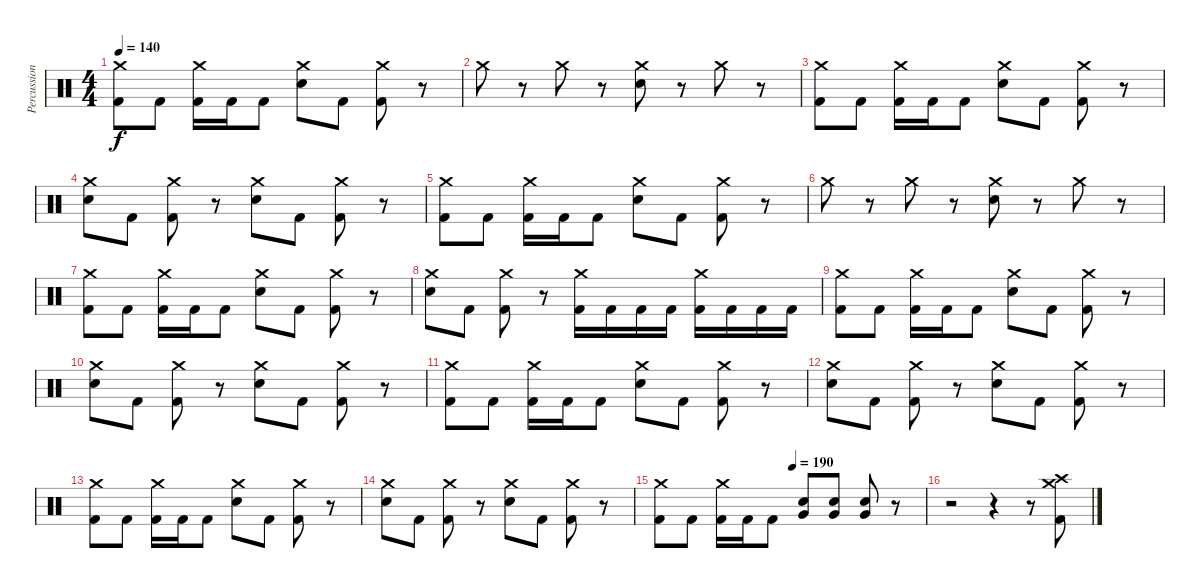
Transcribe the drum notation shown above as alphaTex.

\track ("Percussion" "Percussion") {instrument percussion}
\staff {score}
\articulation defaults
\ts (4 4)
\tempo 140
\clef neutral
\ks c
("Kick (hit) 2" "Crash medium (hit)").8{dy f} "Kick (hit) 2".8 ("Kick (hit) 2" "Crash medium (hit)").16 "Kick (hit) 2".16 "Kick (hit) 2".8 ("Electric Snare (hit)" "Crash medium (hit)").8 "Kick (hit) 2".8 ("Kick (hit) 2" "Crash medium (hit)").8 r.8 |
"Crash medium (hit)".8 r.8 "Crash medium (hit)".8 r.8 ("Electric Snare (hit)" "Crash medium (hit)").8 r.8 "Crash medium (hit)".8 r.8 |
("Kick (hit) 2" "Crash medium (hit)").8 "Kick (hit) 2".8 ("Kick (hit) 2" "Crash medium (hit)").16 "Kick (hit) 2".16 "Kick (hit) 2".8 ("Electric Snare (hit)" "Crash medium (hit)").8 "Kick (hit) 2".8 ("Kick (hit) 2" "Crash medium (hit)").8 r.8 |
("Electric Snare (hit)" "Crash medium (hit)").8 "Kick (hit) 2".8 ("Kick (hit) 2" "Crash medium (hit)").8 r.8 ("Electric Snare (hit)" "Crash medium (hit)").8 "Kick (hit) 2".8 ("Kick (hit) 2" "Crash medium (hit)").8 r.8 |
("Kick (hit) 2" "Crash medium (hit)").8 "Kick (hit) 2".8 ("Kick (hit) 2" "Crash medium (hit)").16 "Kick (hit) 2".16 "Kick (hit) 2".8 ("Electric Snare (hit)" "Crash medium (hit)").8 "Kick (hit) 2".8 ("Kick (hit) 2" "Crash medium (hit)").8 r.8 |
"Crash medium (hit)".8 r.8 "Crash medium (hit)".8 r.8 ("Electric Snare (hit)" "Crash medium (hit)").8 r.8 "Crash medium (hit)".8 r.8 |
("Kick (hit) 2" "Crash medium (hit)").8 "Kick (hit) 2".8 ("Kick (hit) 2" "Crash medium (hit)").16 "Kick (hit) 2".16 "Kick (hit) 2".8 ("Electric Snare (hit)" "Crash medium (hit)").8 "Kick (hit) 2".8 ("Kick (hit) 2" "Crash medium (hit)").8 r.8 |
("Electric Snare (hit)" "Crash medium (hit)").8 "Kick (hit) 2".8 ("Kick (hit) 2" "Crash medium (hit)").8 r.8 ("Kick (hit) 2" "Crash medium (hit)").16 "Kick (hit) 2".16 "Kick (hit) 2".16 "Kick (hit) 2".16 ("Kick (hit) 2" "Crash medium (hit)").16 "Kick (hit) 2".16 "Kick (hit) 2".16 "Kick (hit) 2".16 |
("Kick (hit) 2" "Crash medium (hit)").8 "Kick (hit) 2".8 ("Kick (hit) 2" "Crash medium (hit)").16 "Kick (hit) 2".16 "Kick (hit) 2".8 ("Electric Snare (hit)" "Crash medium (hit)").8 "Kick (hit) 2".8 ("Kick (hit) 2" "Crash medium (hit)").8 r.8 |
("Electric Snare (hit)" "Crash medium (hit)").8 "Kick (hit) 2".8 ("Kick (hit) 2" "Crash medium (hit)").8 r.8 ("Electric Snare (hit)" "Crash medium (hit)").8 "Kick (hit) 2".8 ("Kick (hit) 2" "Crash medium (hit)").8 r.8 |
("Kick (hit) 2" "Crash medium (hit)").8 "Kick (hit) 2".8 ("Kick (hit) 2" "Crash medium (hit)").16 "Kick (hit) 2".16 "Kick (hit) 2".8 ("Electric Snare (hit)" "Crash medium (hit)").8 "Kick (hit) 2".8 ("Kick (hit) 2" "Crash medium (hit)").8 r.8 |
("Electric Snare (hit)" "Crash medium (hit)").8 "Kick (hit) 2".8 ("Kick (hit) 2" "Crash medium (hit)").8 r.8 ("Electric Snare (hit)" "Crash medium (hit)").8 "Kick (hit) 2".8 ("Kick (hit) 2" "Crash medium (hit)").8 r.8 |
("Kick (hit) 2" "Crash medium (hit)").8 "Kick (hit) 2".8 ("Kick (hit) 2" "Crash medium (hit)").16 "Kick (hit) 2".16 "Kick (hit) 2".8 ("Electric Snare (hit)" "Crash medium (hit)").8 "Kick (hit) 2".8 ("Kick (hit) 2" "Crash medium (hit)").8 r.8 |
("Electric Snare (hit)" "Crash medium (hit)").8 "Kick (hit) 2".8 ("Kick (hit) 2" "Crash medium (hit)").8 r.8 ("Electric Snare (hit)" "Crash medium (hit)").8 "Kick (hit) 2".8 ("Kick (hit) 2" "Crash medium (hit)").8 r.8 |
\tempo (190 0.5)
("Kick (hit) 2" "Crash medium (hit)").8 "Kick (hit) 2".8 ("Kick (hit) 2" "Crash medium (hit)").16 "Kick (hit) 2".16 "Kick (hit) 2".8 ("Electric Snare (hit)" "Very Low Tom (hit)").8 ("Electric Snare (hit)" "Very Low Tom (hit)").8 ("Electric Snare (hit)" "Very Low Tom (hit)").8 r.8 |
r.2 r.4 r.8 ("Kick (hit) 2" "Crash medium (hit)" "Crash high (hit)").8
